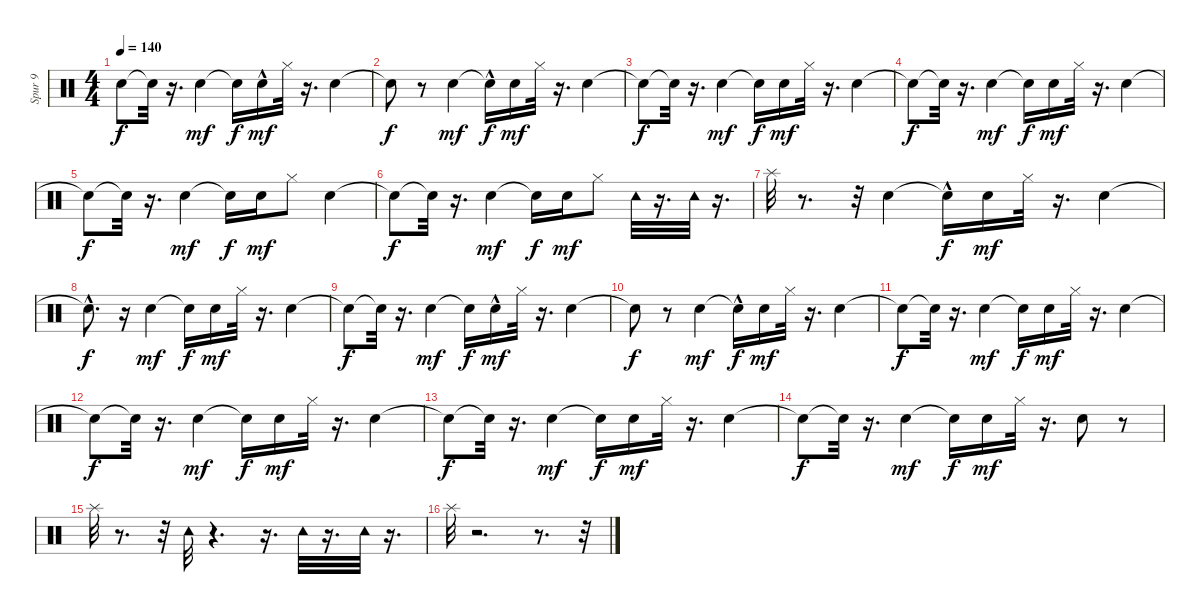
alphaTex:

\track ("Spur 9" "Spur 9") {instrument percussion}
\staff {score}
\articulation defaults
\ts (4 4)
\tempo 140
\clef neutral
\ks c "Snare (hit)"{t}.8{dy f} "Snare (hit)"{t}.32
r.16{d} "Electric Snare (hit)".4{dy mf} "Snare (hit)"{t}.16{dy f} "Snare (hit)"{hac}.16{dy mf} "Hi-Hat (closed)".32 r.16{d} "Electric Snare (hit)".4 |
"Snare (hit)"{t}.8{dy f} r.8 "Electric Snare (hit)".4{dy mf} "Snare (hit)"{hac t}.16{dy f} "Snare (hit)".16{dy mf} "Hi-Hat (closed)".32 r.16{d} "Electric Snare (hit)".4 |
"Snare (hit)"{t}.8{dy f} "Snare (hit)"{t}.32 r.16{d} "Electric Snare (hit)".4{dy mf} "Snare (hit)"{t}.16{dy f} "Snare (hit)".16{dy mf} "Hi-Hat (closed)".32 r.16{d} "Electric Snare (hit)".4 |
"Snare (hit)"{t}.8{dy f} "Snare (hit)"{t}.32 r.16{d} "Electric Snare (hit)".4{dy mf} "Snare (hit)"{t}.16{dy f} "Snare (hit)".16{dy mf} "Hi-Hat (closed)".32 r.16{d} "Electric Snare (hit)".4 |
"Snare (hit)"{t}.8{dy f} "Snare (hit)"{t}.32 r.16{d} "Electric Snare (hit)".4{dy mf} "Snare (hit)"{t}.16{dy f} "Snare (hit)".16{dy mf} "Hi-Hat (closed)".8 "Electric Snare (hit)".4 |
"Snare (hit)"{t}.8{dy f} "Snare (hit)"{t}.32 r.16{d} "Electric Snare (hit)".4{dy mf} "Snare (hit)"{t}.16{dy f} "Snare (hit)".16{dy mf} "Hi-Hat (closed)".8 "Tambourine (hit)".32 r.16{d} "Tambourine (hit)".32 r.16{d} |
"Splash (hit)".32 r.8{d} r.32 "Electric Snare (hit)".4 "Snare (hit)"{hac t}.16{dy f} "Snare (hit)".16{dy mf} "Hi-Hat (closed)".32 r.16{d} "Electric Snare (hit)".4 |
"Snare (hit)"{hac t}.8{d dy f} r.16 "Electric Snare (hit)".4{dy mf} "Snare (hit)"{t}.16{dy f} "Snare (hit)".16{dy mf} "Hi-Hat (closed)".32 r.16{d} "Electric Snare (hit)".4 |
"Snare (hit)"{t}.8{dy f} "Snare (hit)"{t}.32 r.16{d} "Electric Snare (hit)".4{dy mf} "Snare (hit)"{t}.16{dy f} "Snare (hit)"{hac}.16{dy mf} "Hi-Hat (closed)".32 r.16{d} "Electric Snare (hit)".4 |
"Snare (hit)"{t}.8{dy f} r.8 "Electric Snare (hit)".4{dy mf} "Snare (hit)"{hac t}.16{dy f} "Snare (hit)".16{dy mf} "Hi-Hat (closed)".32 r.16{d} "Electric Snare (hit)".4 |
"Snare (hit)"{t}.8{dy f} "Snare (hit)"{t}.32 r.16{d} "Electric Snare (hit)".4{dy mf} "Snare (hit)"{t}.16{dy f} "Snare (hit)".16{dy mf} "Hi-Hat (closed)".32 r.16{d} "Electric Snare (hit)".4 |
"Snare (hit)"{t}.8{dy f} "Snare (hit)"{t}.32 r.16{d} "Electric Snare (hit)".4{dy mf} "Snare (hit)"{t}.16{dy f} "Snare (hit)".16{dy mf} "Hi-Hat (closed)".32 r.16{d} "Electric Snare (hit)".4 |
"Snare (hit)"{t}.8{dy f} "Snare (hit)"{t}.32 r.16{d} "Electric Snare (hit)".4{dy mf} "Snare (hit)"{t}.16{dy f} "Snare (hit)".16{dy mf} "Hi-Hat (closed)".32 r.16{d} "Electric Snare (hit)".4 |
"Snare (hit)"{t}.8{dy f} "Snare (hit)"{t}.32 r.16{d} "Electric Snare (hit)".4{dy mf} "Snare (hit)"{t}.16{dy f} "Snare (hit)".16{dy mf} "Hi-Hat (closed)".32 r.16{d} "Electric Snare (hit)".8 r.8 |
"Splash (hit)".32 r.8{d} r.32 "Tambourine (hit)".32 r.4{d} r.16{d} "Tambourine (hit)".32 r.16{d} "Tambourine (hit)".32 r.16{d} |
"Splash (hit)".32 r.2{d} r.8{d} r.32
